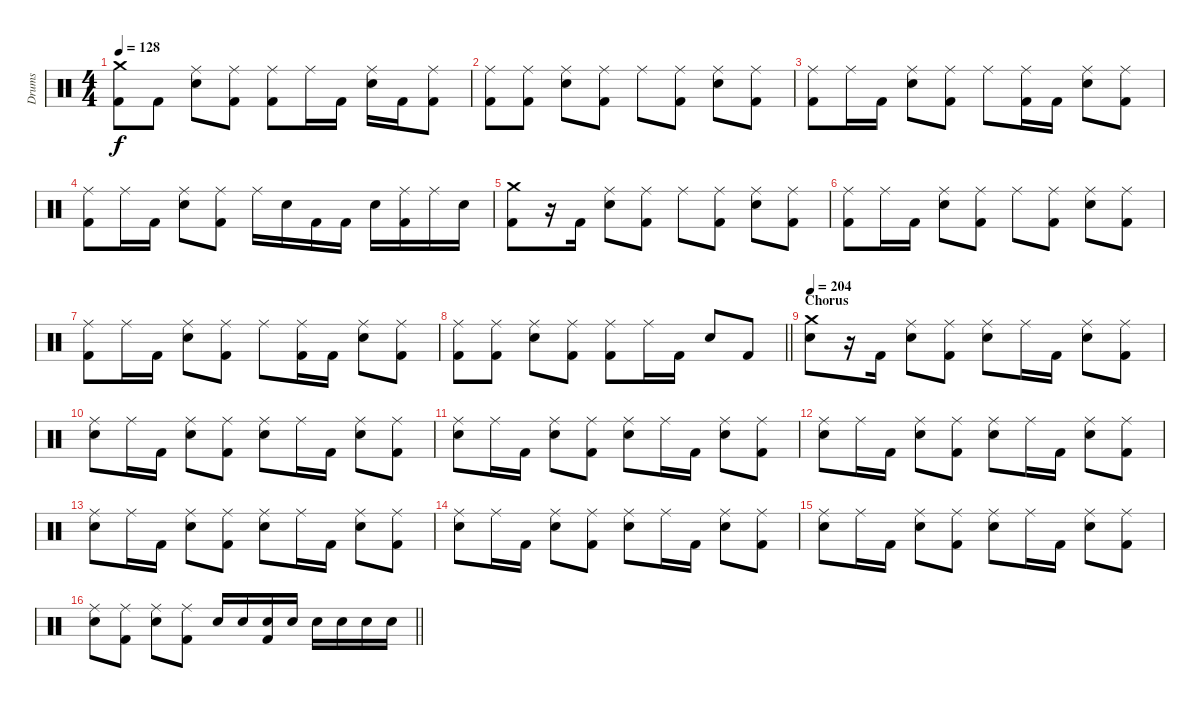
\track ("Drums" "Drums") {instrument percussion}
\staff {score}
\articulation defaults
\ts (4 4)
\tempo 128
\clef neutral
\ks c
("Crash medium (hit)" "Kick (hit) 2").8{dy f} "Kick (hit) 2".8 ("Ride (middle)" "Snare (hit) 2").8 ("Ride (middle)" "Kick (hit) 2").8 ("Ride (middle)" "Kick (hit) 2").8 "Ride (middle)".16 "Kick (hit) 2".16 ("Ride (middle)" "Snare (hit) 2").16 "Kick (hit) 2".16 ("Ride (middle)" "Kick (hit) 2").8 |
("Ride (middle)" "Kick (hit) 2").8 ("Ride (middle)" "Kick (hit) 2").8 ("Ride (middle)" "Snare (hit) 2").8 ("Ride (middle)" "Kick (hit) 2").8 "Ride (middle)".8 ("Ride (middle)" "Kick (hit) 2").8 ("Ride (middle)" "Snare (hit) 2").8 ("Ride (middle)" "Kick (hit) 2").8 |
("Ride (middle)" "Kick (hit) 2").8 "Ride (middle)".16 "Kick (hit) 2".16 ("Ride (middle)" "Snare (hit) 2").8 ("Ride (middle)" "Kick (hit) 2").8 "Ride (middle)".8 ("Ride (middle)" "Kick (hit) 2").16 "Kick (hit) 2".16 ("Ride (middle)" "Snare (hit) 2").8 ("Ride (middle)" "Kick (hit) 2").8 |
("Ride (middle)" "Kick (hit) 2").8 "Ride (middle)".16 "Kick (hit) 2".16 ("Ride (middle)" "Snare (hit) 2").8 ("Ride (middle)" "Kick (hit) 2").8 "Ride (middle)".16 "Snare (hit) 2".16 "Kick (hit) 2".16 "Kick (hit) 2".16 "Snare (hit) 2".16 ("Ride (middle)" "Kick (hit) 2").16 "Ride (middle)".16 "Snare (hit) 2".16 |
("Crash medium (hit)" "Kick (hit) 2").8 r.16 "Kick (hit) 2".16 ("Ride (middle)" "Snare (hit) 2").8 ("Ride (middle)" "Kick (hit) 2").8 "Ride (middle)".8 ("Ride (middle)" "Kick (hit) 2").8 ("Ride (middle)" "Snare (hit) 2").8 ("Ride (middle)" "Kick (hit) 2").8 |
("Ride (middle)" "Kick (hit) 2").8 "Ride (middle)".16 "Kick (hit) 2".16 ("Ride (middle)" "Snare (hit) 2").8 ("Ride (middle)" "Kick (hit) 2").8 "Ride (middle)".8 ("Ride (middle)" "Kick (hit) 2").8 ("Ride (middle)" "Snare (hit) 2").8 ("Ride (middle)" "Kick (hit) 2").8 |
("Ride (middle)" "Kick (hit) 2").8 "Ride (middle)".16 "Kick (hit) 2".16 ("Ride (middle)" "Snare (hit) 2").8 ("Ride (middle)" "Kick (hit) 2").8 "Ride (middle)".8 ("Ride (middle)" "Kick (hit) 2").16 "Kick (hit) 2".16 ("Ride (middle)" "Snare (hit) 2").8 ("Ride (middle)" "Kick (hit) 2").8 |
\barLineRight lightlight
("Ride (middle)" "Kick (hit) 2").8 ("Ride (middle)" "Kick (hit) 2").8 ("Ride (middle)" "Snare (hit) 2").8 ("Ride (middle)" "Kick (hit) 2").8 ("Ride (middle)" "Kick (hit) 2").8 "Ride (middle)".16 "Kick (hit) 2".16 "Snare (hit) 2".8 "Kick (hit) 2".8 |
\section ("" "Chorus")
\tempo 204
("Crash medium (hit)" "Snare (hit) 2").8 r.16 "Kick (hit) 2".16 ("Ride (middle)" "Snare (hit) 2").8 ("Ride (middle)" "Kick (hit) 2").8 ("Ride (middle)" "Snare (hit) 2").8 "Ride (middle)".16 "Kick (hit) 2".16 ("Ride (middle)" "Snare (hit) 2").8 ("Ride (middle)" "Kick (hit) 2").8 |
("Ride (middle)" "Snare (hit) 2").8 "Ride (middle)".16 "Kick (hit) 2".16 ("Ride (middle)" "Snare (hit) 2").8 ("Ride (middle)" "Kick (hit) 2").8 ("Ride (middle)" "Snare (hit) 2").8 "Ride (middle)".16 "Kick (hit) 2".16 ("Ride (middle)" "Snare (hit) 2").8 ("Ride (middle)" "Kick (hit) 2").8 |
("Ride (middle)" "Snare (hit) 2").8 "Ride (middle)".16 "Kick (hit) 2".16 ("Ride (middle)" "Snare (hit) 2").8 ("Ride (middle)" "Kick (hit) 2").8 ("Ride (middle)" "Snare (hit) 2").8 "Ride (middle)".16 "Kick (hit) 2".16 ("Ride (middle)" "Snare (hit) 2").8 ("Ride (middle)" "Kick (hit) 2").8 |
("Ride (middle)" "Snare (hit) 2").8 "Ride (middle)".16 "Kick (hit) 2".16 ("Ride (middle)" "Snare (hit) 2").8 ("Ride (middle)" "Kick (hit) 2").8 ("Ride (middle)" "Snare (hit) 2").8 "Ride (middle)".16 "Kick (hit) 2".16 ("Ride (middle)" "Snare (hit) 2").8 ("Ride (middle)" "Kick (hit) 2").8 |
("Ride (middle)" "Snare (hit) 2").8 "Ride (middle)".16 "Kick (hit) 2".16 ("Ride (middle)" "Snare (hit) 2").8 ("Ride (middle)" "Kick (hit) 2").8 ("Ride (middle)" "Snare (hit) 2").8 "Ride (middle)".16 "Kick (hit) 2".16 ("Ride (middle)" "Snare (hit) 2").8 ("Ride (middle)" "Kick (hit) 2").8 |
("Ride (middle)" "Snare (hit) 2").8 "Ride (middle)".16 "Kick (hit) 2".16 ("Ride (middle)" "Snare (hit) 2").8 ("Ride (middle)" "Kick (hit) 2").8 ("Ride (middle)" "Snare (hit) 2").8 "Ride (middle)".16 "Kick (hit) 2".16 ("Ride (middle)" "Snare (hit) 2").8 ("Ride (middle)" "Kick (hit) 2").8 |
("Ride (middle)" "Snare (hit) 2").8 "Ride (middle)".16 "Kick (hit) 2".16 ("Ride (middle)" "Snare (hit) 2").8 ("Ride (middle)" "Kick (hit) 2").8 ("Ride (middle)" "Snare (hit) 2").8 "Ride (middle)".16 "Kick (hit) 2".16 ("Ride (middle)" "Snare (hit) 2").8 ("Ride (middle)" "Kick (hit) 2").8 |
\barLineRight lightlight
("Ride (middle)" "Snare (hit) 2").8 ("Ride (middle)" "Kick (hit) 2").8 ("Ride (middle)" "Snare (hit) 2").8 ("Ride (middle)" "Kick (hit) 2").8 "Snare (hit) 2".16 "Snare (hit) 2".16 ("Snare (hit) 2" "Kick (hit) 2").16 "Snare (hit) 2".16 "Snare (hit) 2".16 "Snare (hit) 2".16 "Snare (hit) 2".16 "Snare (hit) 2".16
